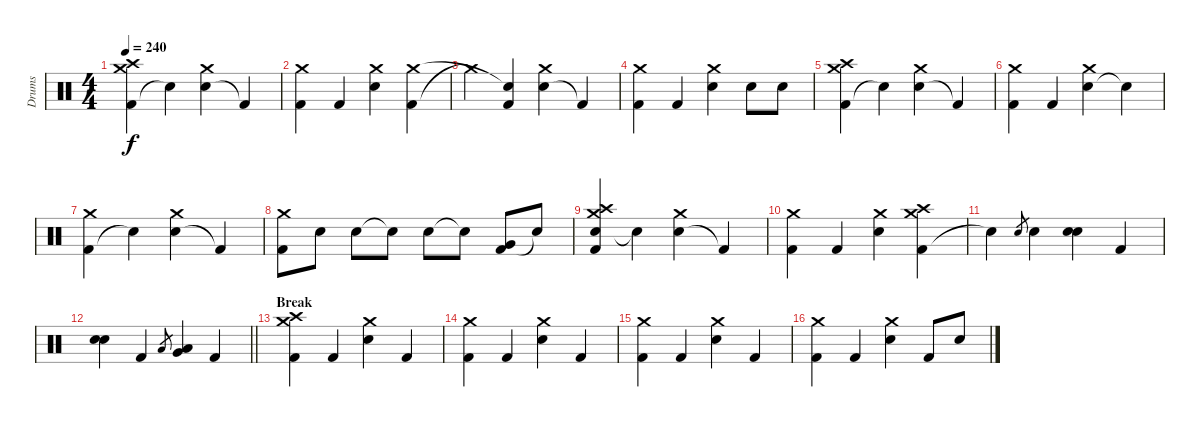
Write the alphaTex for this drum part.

\track ("Drums" "Drums") {instrument percussion}
\staff {score}
\articulation defaults
\ts (4 4)
\tempo 240
\clef neutral
\ks c
("Kick (hit) 2" "Crash medium (hit)" "Crash high (hit)").4{dy f} "Electric Snare (hit)"{t}.4 ("Electric Snare (hit)" "Crash medium (hit)").4 "Kick (hit) 2"{t}.4 |
("Kick (hit) 2" "Crash medium (hit)").4 "Kick (hit) 2".4 ("Electric Snare (hit)" "Crash medium (hit)").4 ("Kick (hit) 2" "Crash medium (hit)").4 |
"Crash medium (hit)"{t}.4 ("Kick (hit) 2" "Snare (hit)"{t}).4 ("Electric Snare (hit)" "Crash medium (hit)").4 "Kick (hit) 2"{t}.4 |
("Kick (hit) 2" "Crash medium (hit)").4 "Kick (hit) 2".4 ("Electric Snare (hit)" "Crash medium (hit)").4 "Electric Snare (hit)".8 "Electric Snare (hit)".8 |
("Kick (hit) 2" "Crash medium (hit)" "Crash high (hit)").4 "Electric Snare (hit)"{t}.4 ("Electric Snare (hit)" "Crash medium (hit)").4 "Kick (hit) 2"{t}.4 |
("Kick (hit) 2" "Crash medium (hit)").4 "Kick (hit) 2".4 ("Electric Snare (hit)" "Crash medium (hit)").4 "Snare (hit)"{t}.4 |
("Kick (hit) 2" "Crash medium (hit)").4 "Electric Snare (hit)"{t}.4 ("Electric Snare (hit)" "Crash medium (hit)").4 "Kick (hit) 2"{t}.4 |
("Kick (hit) 2" "Crash medium (hit)").8 "Electric Snare (hit)".8 "Electric Snare (hit)".8 "Snare (hit)"{t}.8 "Electric Snare (hit)".8 "Snare (hit)"{t}.8 ("Kick (hit) 2" "Very Low Tom (hit)").8 "Snare (hit)"{t}.8 |
("Electric Snare (hit)" "Crash medium (hit)" "Crash high (hit)" "Kick (hit) 2").4 "Electric Snare (hit)"{t}.4 ("Electric Snare (hit)" "Crash medium (hit)").4 "Kick (hit) 2"{t}.4 |
("Kick (hit) 2" "Crash medium (hit)").4 "Kick (hit) 2".4 ("Electric Snare (hit)" "Crash medium (hit)").4 ("Kick (hit) 2" "Crash medium (hit)" "Crash high (hit)").4 |
"Snare (hit)"{t}.4 "Electric Snare (hit)".8{gr} "Electric Snare (hit)".4 ("Electric Snare (hit)" "Electric Snare (hit)").4 "Kick (hit) 2".4 |
\barLineRight lightlight
("Electric Snare (hit)" "Electric Snare (hit)").4 "Kick (hit) 2".4 "Low Tom (hit)".8{gr} ("Low Tom (hit)" "Very Low Tom (hit)").4 "Kick (hit) 2".4 |
\section ("" "Break")
("Kick (hit) 2" "Crash medium (hit)" "Crash high (hit)").4 "Kick (hit) 2".4 ("Electric Snare (hit)" "Crash medium (hit)").4 "Kick (hit) 2".4 |
("Kick (hit) 2" "Crash medium (hit)").4 "Kick (hit) 2".4 ("Electric Snare (hit)" "Crash medium (hit)").4 "Kick (hit) 2".4 |
("Kick (hit) 2" "Crash medium (hit)").4 "Kick (hit) 2".4 ("Electric Snare (hit)" "Crash medium (hit)").4 "Kick (hit) 2".4 |
("Kick (hit) 2" "Crash medium (hit)").4 "Kick (hit) 2".4 ("Electric Snare (hit)" "Crash medium (hit)").4 "Kick (hit) 2".8 "Electric Snare (hit)".8
